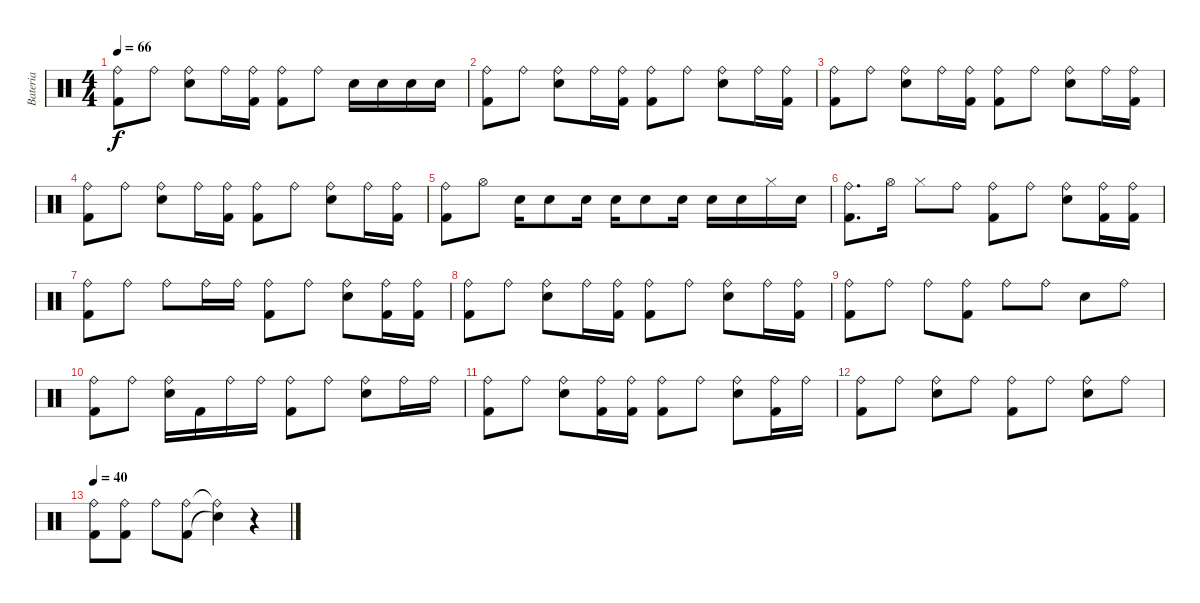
\track ("Bateria" "Bateria") {instrument percussion}
\staff {score}
\articulation defaults
\ts (4 4)
\tempo 66
\clef neutral
\ks c
("Ride (bell)" "Kick (hit) 2").8{dy f} "Ride (bell)".8 ("Ride (bell)" "Snare (hit) 2").8 "Ride (bell)".16 ("Ride (bell)" "Kick (hit) 2").16 ("Ride (bell)" "Kick (hit) 2").8 "Ride (bell)".8 "Snare (hit) 2".16 "Snare (hit) 2".16 "Snare (hit) 2".16 "Snare (hit) 2".16 |
("Ride (bell)" "Kick (hit) 2").8 "Ride (bell)".8 ("Ride (bell)" "Snare (hit) 2").8 "Ride (bell)".16 ("Ride (bell)" "Kick (hit) 2").16 ("Ride (bell)" "Kick (hit) 2").8 "Ride (bell)".8 ("Ride (bell)" "Snare (hit) 2").8 "Ride (bell)".16 ("Ride (bell)" "Kick (hit) 2").16 |
("Ride (bell)" "Kick (hit) 2").8 "Ride (bell)".8 ("Ride (bell)" "Snare (hit) 2").8 "Ride (bell)".16 ("Ride (bell)" "Kick (hit) 2").16 ("Ride (bell)" "Kick (hit) 2").8 "Ride (bell)".8 ("Ride (bell)" "Snare (hit) 2").8 "Ride (bell)".16 ("Ride (bell)" "Kick (hit) 2").16 |
("Ride (bell)" "Kick (hit) 2").8 "Ride (bell)".8 ("Ride (bell)" "Snare (hit) 2").8 "Ride (bell)".16 ("Ride (bell)" "Kick (hit) 2").16 ("Ride (bell)" "Kick (hit) 2").8 "Ride (bell)".8 ("Ride (bell)" "Snare (hit) 2").8 "Ride (bell)".16 ("Ride (bell)" "Kick (hit) 2").16 |
("Ride (bell)" "Kick (hit) 2").8 "Hi-Hat (open)".8 "Snare (hit) 2".16 "Snare (hit) 2".8 "Snare (hit) 2".16 "Snare (hit) 2".16 "Snare (hit) 2".8 "Snare (hit) 2".16 "Snare (hit) 2".16 "Snare (hit) 2".16 "Hi-Hat (closed)".16 "Snare (hit) 2".16 |
("Ride (bell)" "Kick (hit) 2").8{d} "Hi-Hat (open)".16 "Hi-Hat (closed)".8 "Ride (bell)".8 ("Ride (bell)" "Kick (hit) 2").8 "Ride (bell)".8 ("Ride (bell)" "Snare (hit) 2").8 ("Ride (bell)" "Kick (hit) 2").16 ("Ride (bell)" "Kick (hit) 2").16 |
("Ride (bell)" "Kick (hit) 2").8 "Ride (bell)".8 "Ride (bell)".8 "Ride (bell)".16 "Ride (bell)".16 ("Ride (bell)" "Kick (hit) 2").8 "Ride (bell)".8 ("Ride (bell)" "Snare (hit) 2").8 ("Ride (bell)" "Kick (hit) 2").16 ("Ride (bell)" "Kick (hit) 2").16 |
("Ride (bell)" "Kick (hit) 2").8 "Ride (bell)".8 ("Ride (bell)" "Snare (hit) 2").8 "Ride (bell)".16 ("Ride (bell)" "Kick (hit) 2").16 ("Ride (bell)" "Kick (hit) 2").8 "Ride (bell)".8 ("Ride (bell)" "Snare (hit) 2").8 "Ride (bell)".16 ("Ride (bell)" "Kick (hit) 2").16 |
("Ride (bell)" "Kick (hit) 2").8 "Ride (bell)".8 "Ride (bell)".8 ("Ride (bell)" "Kick (hit) 2").8 "Ride (bell)".8 "Ride (bell)".8 "Snare (hit) 2".8 "Ride (bell)".8 |
("Ride (bell)" "Kick (hit) 2").8 "Ride (bell)".8 ("Ride (bell)" "Snare (hit) 2").16 "Kick (hit) 2".16 "Ride (bell)".16 "Ride (bell)".16 ("Ride (bell)" "Kick (hit) 2").8 "Ride (bell)".8 ("Ride (bell)" "Snare (hit) 2").8 "Ride (bell)".16 "Ride (bell)".16 |
("Ride (bell)" "Kick (hit) 2").8 "Ride (bell)".8 ("Ride (bell)" "Snare (hit) 2").8 ("Ride (bell)" "Kick (hit) 2").16 ("Ride (bell)" "Kick (hit) 2").16 ("Ride (bell)" "Kick (hit) 2").8 "Ride (bell)".8 ("Ride (bell)" "Snare (hit) 2").8 ("Ride (bell)" "Kick (hit) 2").16 "Ride (bell)".16 |
("Ride (bell)" "Kick (hit) 2").8 "Ride (bell)".8 ("Ride (bell)" "Snare (hit) 2").8 "Ride (bell)".8 ("Ride (bell)" "Kick (hit) 2").8 "Ride (bell)".8 ("Ride (bell)" "Snare (hit) 2").8 "Ride (bell)".8 |
\tempo 40
("Ride (bell)" "Kick (hit) 2").8 ("Ride (bell)" "Kick (hit) 2").8 "Ride (bell)".8 ("Ride (bell)" "Kick (hit) 2").8 ("Ride (bell)"{t} "Snare (hit)"{t}).4 r.4
